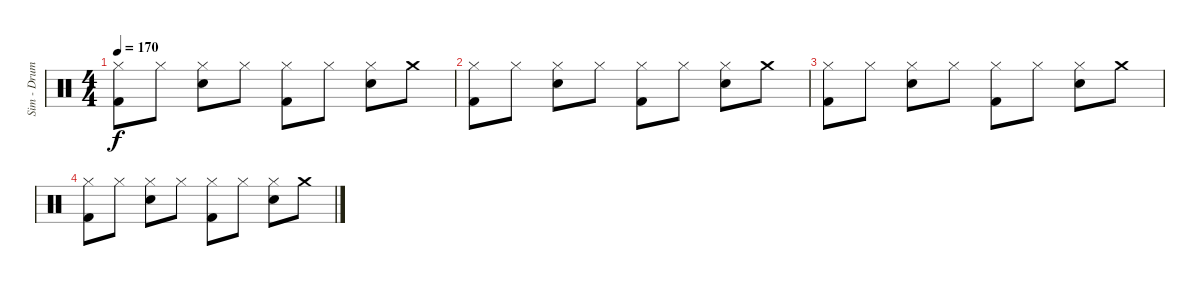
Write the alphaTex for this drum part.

\track ("Sim - Drums" "Sim - Drum") {instrument percussion}
\staff {score}
\articulation defaults
\ts (4 4)
\tempo 170
\clef neutral
\ks c
("Hi-Hat (closed)" "Kick (hit) 2").8{dy f} "Hi-Hat (closed)".8 ("Hi-Hat (closed)" "Snare (hit) 2").8 "Hi-Hat (closed)".8 ("Hi-Hat (closed)" "Kick (hit) 2").8 "Hi-Hat (closed)".8 ("Hi-Hat (closed)" "Snare (hit) 2").8 "Crash medium (hit)".8 |
("Hi-Hat (closed)" "Kick (hit) 2").8 "Hi-Hat (closed)".8 ("Hi-Hat (closed)" "Snare (hit) 2").8 "Hi-Hat (closed)".8 ("Hi-Hat (closed)" "Kick (hit) 2").8 "Hi-Hat (closed)".8 ("Hi-Hat (closed)" "Snare (hit) 2").8 "Crash medium (hit)".8 |
("Hi-Hat (closed)" "Kick (hit) 2").8 "Hi-Hat (closed)".8 ("Hi-Hat (closed)" "Snare (hit) 2").8 "Hi-Hat (closed)".8 ("Hi-Hat (closed)" "Kick (hit) 2").8 "Hi-Hat (closed)".8 ("Hi-Hat (closed)" "Snare (hit) 2").8 "Crash medium (hit)".8 |
("Hi-Hat (closed)" "Kick (hit) 2").8 "Hi-Hat (closed)".8 ("Hi-Hat (closed)" "Snare (hit) 2").8 "Hi-Hat (closed)".8 ("Hi-Hat (closed)" "Kick (hit) 2").8 "Hi-Hat (closed)".8 ("Hi-Hat (closed)" "Snare (hit) 2").8 "Crash medium (hit)".8
